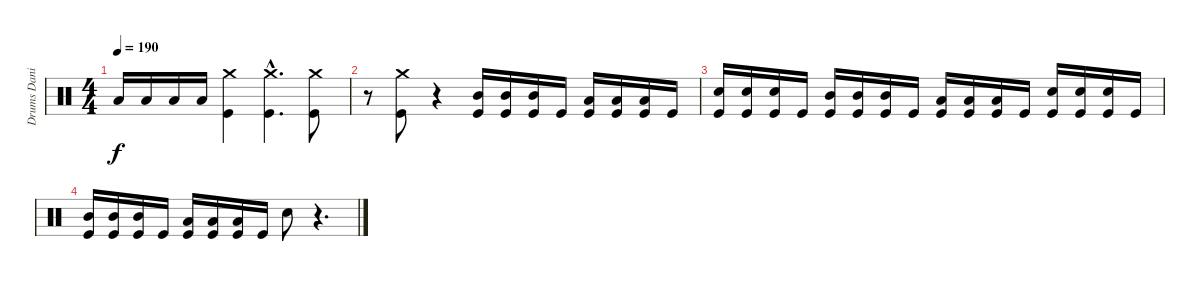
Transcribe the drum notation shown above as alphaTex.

\track ("Drums Daniel" "Drums Dani") {instrument percussion}
\staff {score}
\articulation defaults
\ts (4 4)
\tempo 190
\clef neutral
\ks c "Low Floor Tom (hit)".16{dy f} "Low Floor Tom (hit)".16 "Low Floor Tom (hit)".16 "Low Floor Tom (hit)".16
("Kick (hit)" "Crash medium (hit)").4 ("Kick (hit)"{hac} "Crash medium (hit)"{hac}).4{d} ("Kick (hit)" "Crash medium (hit)").8 |
r.8 ("Kick (hit)" "Crash medium (hit)").8 r.4 ("Kick (hit)" "Mid Tom (hit)").16 ("Kick (hit)" "Mid Tom (hit)").16 ("Kick (hit)" "Mid Tom (hit)").16 "Kick (hit)".16 ("Kick (hit)" "Low Tom (hit)").16 ("Kick (hit)" "Low Tom (hit)").16 ("Kick (hit)" "Low Tom (hit)").16 "Kick (hit)".16 |
("Kick (hit)" "Electric Snare (hit)").16 ("Kick (hit)" "Electric Snare (hit)").16 ("Kick (hit)" "Electric Snare (hit)").16 "Kick (hit)".16 ("Kick (hit)" "Mid Tom (hit)").16 ("Kick (hit)" "Mid Tom (hit)").16 ("Kick (hit)" "Mid Tom (hit)").16 "Kick (hit)".16 ("Kick (hit)" "Low Tom (hit)").16 ("Kick (hit)" "Low Tom (hit)").16 ("Kick (hit)" "Low Tom (hit)").16 "Kick (hit)".16 ("Kick (hit)" "Electric Snare (hit)").16 ("Kick (hit)" "Electric Snare (hit)").16 ("Kick (hit)" "Electric Snare (hit)").16 "Kick (hit)".16 |
("Kick (hit)" "Mid Tom (hit)").16 ("Kick (hit)" "Mid Tom (hit)").16 ("Kick (hit)" "Mid Tom (hit)").16 "Kick (hit)".16 ("Kick (hit)" "Low Tom (hit)").16 ("Kick (hit)" "Low Tom (hit)").16 ("Kick (hit)" "Low Tom (hit)").16 "Kick (hit)".16 "Electric Snare (hit)".8 r.4{d}
